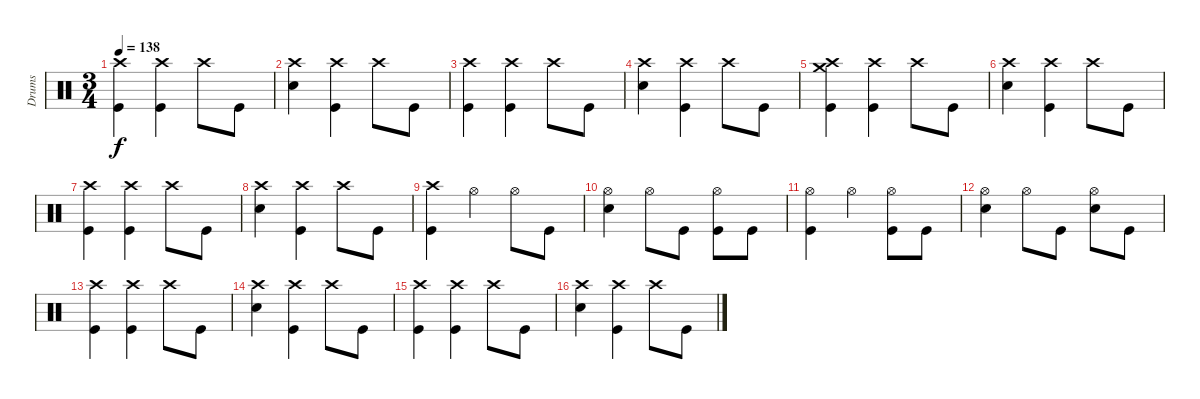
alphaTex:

\track ("Drums" "Drums") {instrument percussion}
\staff {score}
\articulation defaults
\ts (3 4)
\tempo 138
\clef neutral
\ks c
("Crash high (hit)" "Kick (hit)").4{dy f} ("Crash high (hit)" "Kick (hit)").4 "Crash high (hit)".8 "Kick (hit)".8 |
("Crash high (hit)" "Snare (hit) 2").4 ("Crash high (hit)" "Kick (hit)").4 "Crash high (hit)".8 "Kick (hit)".8 |
("Crash high (hit)" "Kick (hit)").4 ("Crash high (hit)" "Kick (hit)").4 "Crash high (hit)".8 "Kick (hit)".8 |
("Crash high (hit)" "Snare (hit) 2").4 ("Crash high (hit)" "Kick (hit)").4 "Crash high (hit)".8 "Kick (hit)".8 |
("Crash medium (hit)" "Crash high (hit)" "Kick (hit)").4 ("Crash high (hit)" "Kick (hit)").4 "Crash high (hit)".8 "Kick (hit)".8 |
("Crash high (hit)" "Snare (hit) 2").4 ("Crash high (hit)" "Kick (hit)").4 "Crash high (hit)".8 "Kick (hit)".8 |
("Crash high (hit)" "Kick (hit)").4 ("Crash high (hit)" "Kick (hit)").4 "Crash high (hit)".8 "Kick (hit)".8 |
("Crash high (hit)" "Snare (hit) 2").4 ("Crash high (hit)" "Kick (hit)").4 "Crash high (hit)".8 "Kick (hit)".8 |
("Crash high (hit)" "Kick (hit)").4 "Hi-Hat (open)".4 "Hi-Hat (open)".8 "Kick (hit)".8 |
("Hi-Hat (open)" "Snare (hit) 2").4 "Hi-Hat (open)".8 "Kick (hit)".8 ("Hi-Hat (open)" "Kick (hit)").8 "Kick (hit)".8 |
("Hi-Hat (open)" "Kick (hit)").4 "Hi-Hat (open)".4 ("Hi-Hat (open)" "Kick (hit)").8 "Kick (hit)".8 |
("Hi-Hat (open)" "Snare (hit) 2").4 "Hi-Hat (open)".8 "Kick (hit)".8 ("Hi-Hat (open)" "Snare (hit) 2").8 "Kick (hit)".8 |
("Crash high (hit)" "Kick (hit)").4 ("Crash high (hit)" "Kick (hit)").4 "Crash high (hit)".8 "Kick (hit)".8 |
("Crash high (hit)" "Snare (hit) 2").4 ("Crash high (hit)" "Kick (hit)").4 "Crash high (hit)".8 "Kick (hit)".8 |
("Crash high (hit)" "Kick (hit)").4 ("Crash high (hit)" "Kick (hit)").4 "Crash high (hit)".8 "Kick (hit)".8 |
("Crash high (hit)" "Snare (hit) 2").4 ("Crash high (hit)" "Kick (hit)").4 "Crash high (hit)".8 "Kick (hit)".8
